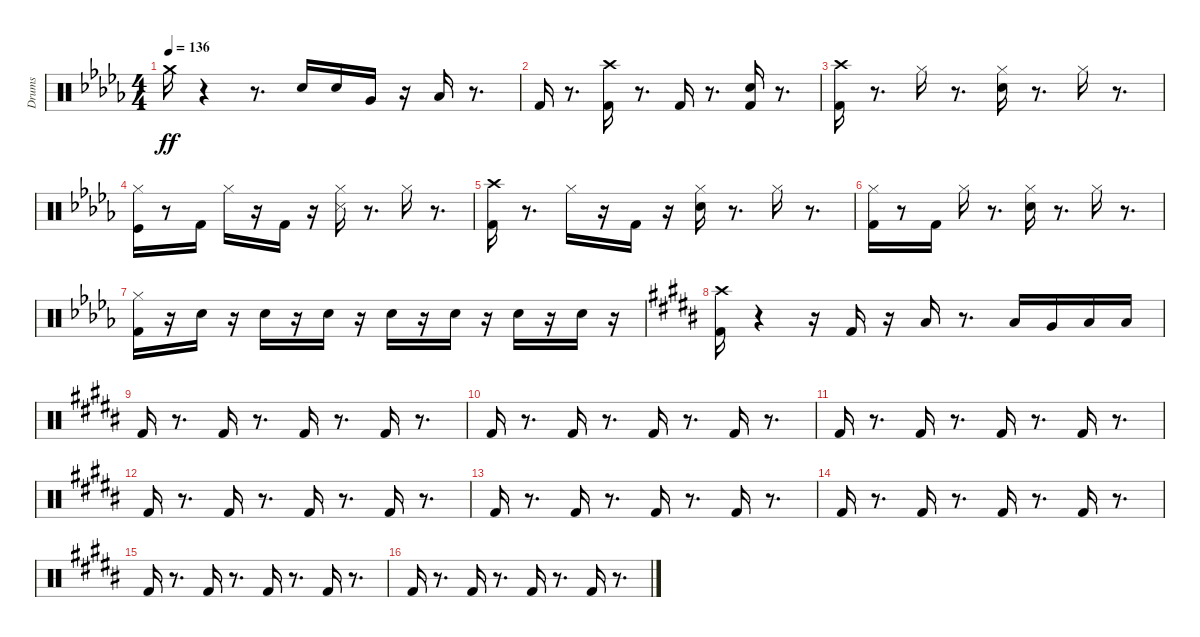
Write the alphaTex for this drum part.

\track ("Drums" "Drums") {instrument percussion}
\staff {score}
\articulation defaults
\ts (4 4)
\tempo 136
\clef neutral
\ks db "Crash medium (hit)".16{dy ff}
r.4 r.8{d} "Electric Snare (hit)".16 "Electric Snare (hit)".16 "Very Low Tom (hit)".16 r.16 "Low Floor Tom (hit)".16 r.8{d} |
"Kick (hit) 2".16 r.8{d} ("Kick (hit) 2" "Crash high (hit)").16 r.8{d} "Kick (hit) 2".16 r.8{d} ("Kick (hit) 2" "Electric Snare (hit)").16 r.8{d} |
("Kick (hit) 2" "Crash high (hit)").16 r.8{d} "Hi-Hat (closed)".16 r.8{d} ("Electric Snare (hit)" "Hi-Hat (closed)").16 r.8{d} "Hi-Hat (closed)".16 r.8{d} |
("Kick (hit)" "Hi-Hat (closed)").16 r.8 "Kick (hit) 2".16 "Hi-Hat (closed)".16 r.16 "Kick (hit) 2".16 r.16 ("Snare (side stick) 3" "Hi-Hat (closed)").16 r.8{d} "Hi-Hat (closed)".16 r.8{d} |
("Kick (hit) 2" "Crash high (hit)").16 r.8{d} "Hi-Hat (closed)".16 r.16 "Kick (hit) 2".16 r.16 ("Electric Snare (hit)" "Hi-Hat (closed)").16 r.8{d} "Hi-Hat (closed)".16 r.8{d} |
("Kick (hit) 2" "Hi-Hat (closed)").16 r.8 "Kick (hit) 2".16 "Hi-Hat (closed)".16 r.8{d} ("Electric Snare (hit)" "Hi-Hat (closed)").16 r.8{d} "Hi-Hat (closed)".16 r.8{d} |
("Kick (hit) 2" "Hi-Hat (closed)").16 r.16 "Electric Snare (hit)".16 r.16 "Electric Snare (hit)".16 r.16 "Electric Snare (hit)".16 r.16 "Electric Snare (hit)".16 r.16 "Electric Snare (hit)".16 r.16 "Electric Snare (hit)".16 r.16 "Electric Snare (hit)".16 r.16 |
\ks b
("Kick (hit) 2" "Crash high (hit)").16 r.4 r.16 "Kick (hit) 2".16 r.16 "Low Tom (hit)".16 r.8{d} "Low Tom (hit)".16 "Very Low Tom (hit)".16 "Low Floor Tom (hit)".16 "Low Floor Tom (hit)".16 |
"Kick (hit) 2".16 r.8{d} "Kick (hit) 2".16 r.8{d} "Kick (hit) 2".16 r.8{d} "Kick (hit) 2".16 r.8{d} |
"Kick (hit) 2".16 r.8{d} "Kick (hit) 2".16 r.8{d} "Kick (hit) 2".16 r.8{d} "Kick (hit) 2".16 r.8{d} |
"Kick (hit) 2".16 r.8{d} "Kick (hit) 2".16 r.8{d} "Kick (hit) 2".16 r.8{d} "Kick (hit) 2".16 r.8{d} |
"Kick (hit) 2".16 r.8{d} "Kick (hit) 2".16 r.8{d} "Kick (hit) 2".16 r.8{d} "Kick (hit) 2".16 r.8{d} |
"Kick (hit) 2".16 r.8{d} "Kick (hit) 2".16 r.8{d} "Kick (hit) 2".16 r.8{d} "Kick (hit) 2".16 r.8{d} |
"Kick (hit) 2".16 r.8{d} "Kick (hit) 2".16 r.8{d} "Kick (hit) 2".16 r.8{d} "Kick (hit) 2".16 r.8{d} |
"Kick (hit) 2".16 r.8{d} "Kick (hit) 2".16 r.8{d} "Kick (hit) 2".16 r.8{d} "Kick (hit) 2".16 r.8{d} |
"Kick (hit) 2".16 r.8{d} "Kick (hit) 2".16 r.8{d} "Kick (hit) 2".16 r.8{d} "Kick (hit) 2".16 r.8{d}
